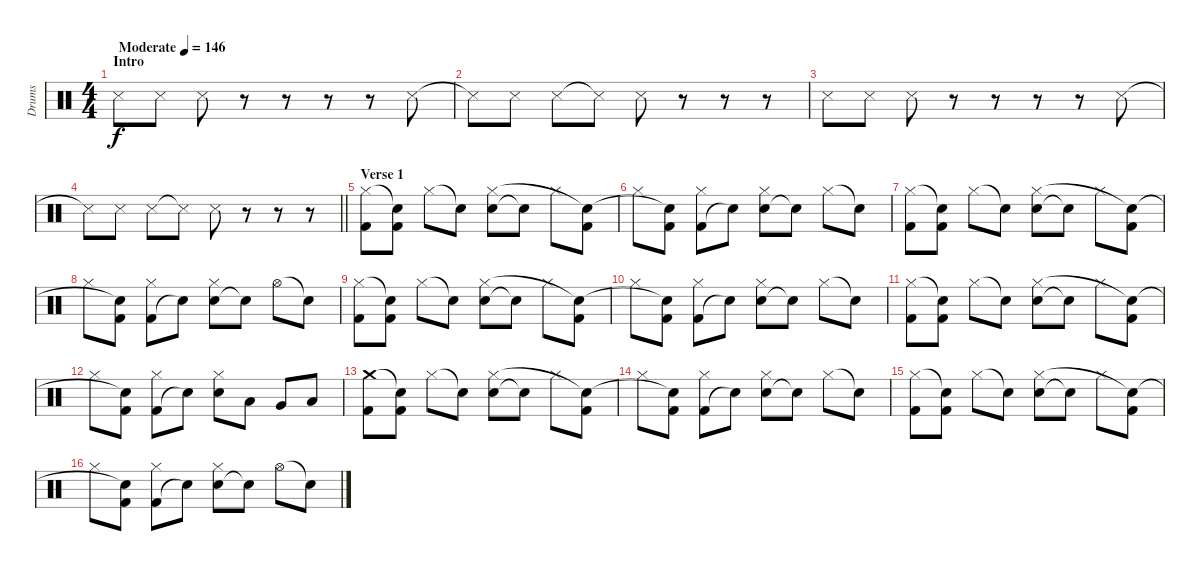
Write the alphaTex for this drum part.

\track ("Drums" "Drums") {instrument percussion}
\staff {score}
\articulation defaults
\ts (4 4)
\section ("" "Intro")
\tempo (146 "Moderate")
\clef neutral
\ks c "Snare (side stick) 3".8{dy f} "Snare (side stick) 3".8 "Metronome (hit)".8
r.8 r.8 r.8 r.8 "Snare (side stick) 3".8 |
"Snare (side stick) 3"{t}.8 "Metronome (hit)".8 "Snare (side stick) 3".8 "Metronome (hit)"{t}.8 "Metronome (hit)".8 r.8 r.8 r.8 |
"Snare (side stick) 3".8 "Snare (side stick) 3".8 "Metronome (hit)".8 r.8 r.8 r.8 r.8 "Snare (side stick) 3".8 |
\barLineRight lightlight "Snare (side stick) 3"{t}.8 "Metronome (hit)".8 "Snare (side stick) 3".8 "Metronome (hit)"{t}.8 "Metronome (hit)".8
r.8 r.8 r.8 |
\section ("" "Verse 1")
("Kick (hit) 2" "Hi-Hat (closed)").8 ("Kick (hit) 2" "Snare (hit)"{t}).8 "Hi-Hat (closed)".8 "Snare (hit)"{t}.8 ("Electric Snare (hit)" "Hi-Hat (closed)").8 "Snare (hit)"{t}.8 "Hi-Hat (closed)".8 ("Kick (hit) 2" "Snare (hit)"{t}).8 |
"Hi-Hat (closed)".8 ("Kick (hit) 2" "Snare (hit)"{t}).8 ("Kick (hit) 2" "Hi-Hat (closed)").8 "Snare (hit)"{t}.8 ("Electric Snare (hit)" "Hi-Hat (closed)").8 "Snare (hit)"{t}.8 "Hi-Hat (closed)".8 "Snare (hit)"{t}.8 |
("Kick (hit) 2" "Hi-Hat (closed)").8 ("Kick (hit) 2" "Snare (hit)"{t}).8 "Hi-Hat (closed)".8 "Snare (hit)"{t}.8 ("Electric Snare (hit)" "Hi-Hat (closed)").8 "Snare (hit)"{t}.8 "Hi-Hat (closed)".8 ("Kick (hit) 2" "Snare (hit)"{t}).8 |
"Hi-Hat (closed)".8 ("Kick (hit) 2" "Snare (hit)"{t}).8 ("Kick (hit) 2" "Hi-Hat (closed)").8 "Snare (hit)"{t}.8 ("Electric Snare (hit)" "Hi-Hat (closed)").8 "Snare (hit)"{t}.8 "Hi-Hat (open)".8 "Snare (hit)"{t}.8 |
("Kick (hit) 2" "Hi-Hat (closed)").8 ("Kick (hit) 2" "Snare (hit)"{t}).8 "Hi-Hat (closed)".8 "Snare (hit)"{t}.8 ("Electric Snare (hit)" "Hi-Hat (closed)").8 "Snare (hit)"{t}.8 "Hi-Hat (closed)".8 ("Kick (hit) 2" "Snare (hit)"{t}).8 |
"Hi-Hat (closed)".8 ("Kick (hit) 2" "Snare (hit)"{t}).8 ("Kick (hit) 2" "Hi-Hat (closed)").8 "Snare (hit)"{t}.8 ("Electric Snare (hit)" "Hi-Hat (closed)").8 "Snare (hit)"{t}.8 "Hi-Hat (closed)".8 "Snare (hit)"{t}.8 |
("Kick (hit) 2" "Hi-Hat (closed)").8 ("Kick (hit) 2" "Snare (hit)"{t}).8 "Hi-Hat (closed)".8 "Snare (hit)"{t}.8 ("Electric Snare (hit)" "Hi-Hat (closed)").8 "Snare (hit)"{t}.8 "Hi-Hat (closed)".8 ("Kick (hit) 2" "Snare (hit)"{t}).8 |
"Hi-Hat (closed)".8 ("Kick (hit) 2" "Snare (hit)"{t}).8 ("Kick (hit) 2" "Hi-Hat (closed)").8 "Snare (hit)"{t}.8 ("Electric Snare (hit)" "Hi-Hat (closed)").8 "Low Tom (hit)".8 "Very Low Tom (hit)".8 "Low Floor Tom (hit)".8 |
("Kick (hit) 2" "Crash medium (hit)").8 ("Kick (hit) 2" "Snare (hit)"{t}).8 "Hi-Hat (closed)".8 "Snare (hit)"{t}.8 ("Electric Snare (hit)" "Hi-Hat (closed)").8 "Snare (hit)"{t}.8 "Hi-Hat (closed)".8 ("Kick (hit) 2" "Snare (hit)"{t}).8 |
"Hi-Hat (closed)".8 ("Kick (hit) 2" "Snare (hit)"{t}).8 ("Kick (hit) 2" "Hi-Hat (closed)").8 "Snare (hit)"{t}.8 ("Electric Snare (hit)" "Hi-Hat (closed)").8 "Snare (hit)"{t}.8 "Hi-Hat (closed)".8 "Snare (hit)"{t}.8 |
("Kick (hit) 2" "Hi-Hat (closed)").8 ("Kick (hit) 2" "Snare (hit)"{t}).8 "Hi-Hat (closed)".8 "Snare (hit)"{t}.8 ("Electric Snare (hit)" "Hi-Hat (closed)").8 "Snare (hit)"{t}.8 "Hi-Hat (closed)".8 ("Kick (hit) 2" "Snare (hit)"{t}).8 |
"Hi-Hat (closed)".8 ("Kick (hit) 2" "Snare (hit)"{t}).8 ("Kick (hit) 2" "Hi-Hat (closed)").8 "Snare (hit)"{t}.8 ("Electric Snare (hit)" "Hi-Hat (closed)").8 "Snare (hit)"{t}.8 "Hi-Hat (open)".8 "Snare (hit)"{t}.8
